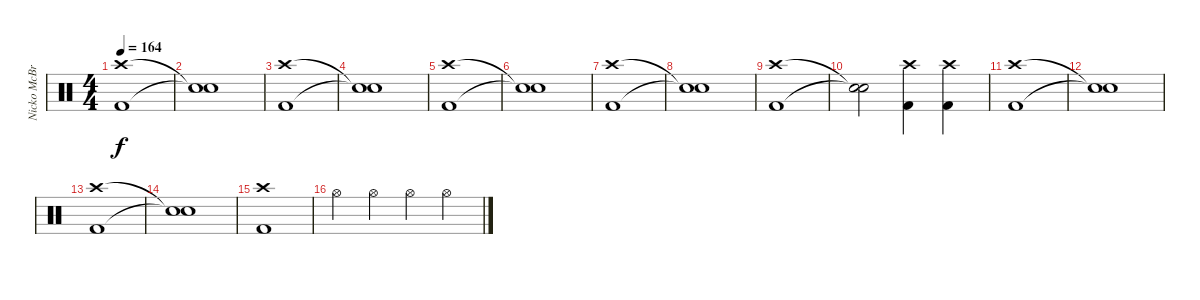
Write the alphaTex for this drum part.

\track ("Nicko McBrian (Drums)" "Nicko McBr") {instrument percussion}
\staff {score}
\articulation defaults
\ts (4 4)
\tempo 164
\clef neutral
\ks c
("Kick (hit) 2" "Crash high (hit)").1{dy f} |
("Snare (hit)"{t} "Snare (hit)"{t}).1 |
("Kick (hit) 2" "Crash high (hit)").1 |
("Snare (hit)"{t} "Snare (hit)"{t}).1 |
("Kick (hit) 2" "Crash high (hit)").1 |
("Snare (hit)"{t} "Snare (hit)"{t}).1 |
("Kick (hit) 2" "Crash high (hit)").1 |
("Snare (hit)"{t} "Snare (hit)"{t}).1 |
("Kick (hit) 2" "Crash high (hit)").1 |
("Snare (hit)"{t} "Snare (hit)"{t}).2 ("Kick (hit) 2" "Crash high (hit)").4 ("Kick (hit) 2" "Crash high (hit)").4 |
("Kick (hit) 2" "Crash high (hit)").1 |
("Snare (hit)"{t} "Snare (hit)"{t}).1 |
("Kick (hit) 2" "Crash high (hit)").1 |
("Snare (hit)"{t} "Snare (hit)"{t}).1 |
("Kick (hit) 2" "Crash high (hit)").1 |
"Hi-Hat (open)".4 "Hi-Hat (open)".4 "Hi-Hat (open)".4 "Hi-Hat (open)".4
